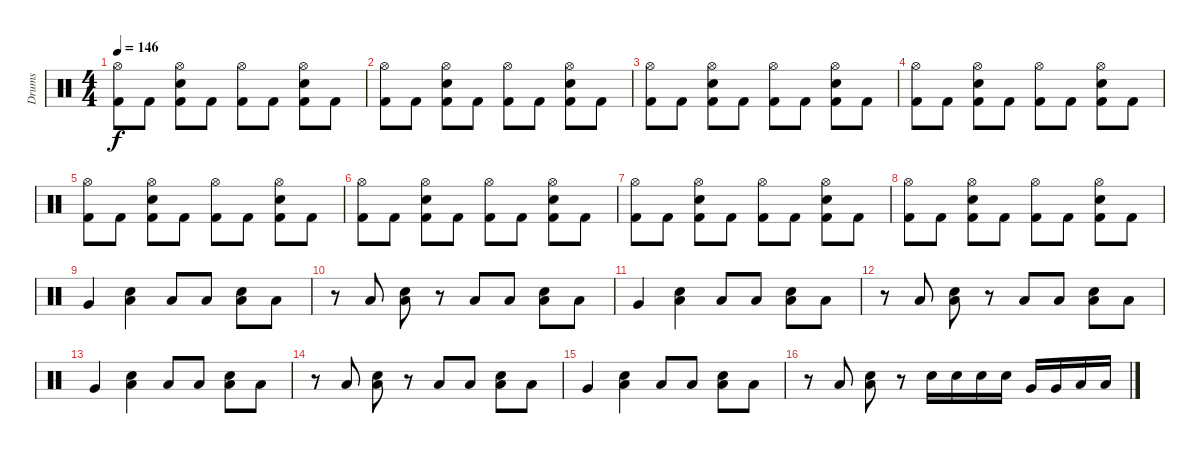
\track ("Drums" "Drums") {instrument percussion}
\staff {score}
\articulation defaults
\ts (4 4)
\tempo 146
\clef neutral
\ks c
("Hi-Hat (open)" "Kick (hit) 2").8{dy f} "Kick (hit) 2".8 ("Hi-Hat (open)" "Snare (hit) 2" "Kick (hit) 2").8 "Kick (hit) 2".8 ("Hi-Hat (open)" "Kick (hit) 2").8 "Kick (hit) 2".8 ("Hi-Hat (open)" "Snare (hit) 2" "Kick (hit) 2").8 "Kick (hit) 2".8 |
("Hi-Hat (open)" "Kick (hit) 2").8 "Kick (hit) 2".8 ("Hi-Hat (open)" "Snare (hit) 2" "Kick (hit) 2").8 "Kick (hit) 2".8 ("Hi-Hat (open)" "Kick (hit) 2").8 "Kick (hit) 2".8 ("Hi-Hat (open)" "Snare (hit) 2" "Kick (hit) 2").8 "Kick (hit) 2".8 |
("Hi-Hat (open)" "Kick (hit) 2").8 "Kick (hit) 2".8 ("Hi-Hat (open)" "Snare (hit) 2" "Kick (hit) 2").8 "Kick (hit) 2".8 ("Hi-Hat (open)" "Kick (hit) 2").8 "Kick (hit) 2".8 ("Hi-Hat (open)" "Snare (hit) 2" "Kick (hit) 2").8 "Kick (hit) 2".8 |
("Hi-Hat (open)" "Kick (hit) 2").8 "Kick (hit) 2".8 ("Hi-Hat (open)" "Snare (hit) 2" "Kick (hit) 2").8 "Kick (hit) 2".8 ("Hi-Hat (open)" "Kick (hit) 2").8 "Kick (hit) 2".8 ("Hi-Hat (open)" "Snare (hit) 2" "Kick (hit) 2").8 "Kick (hit) 2".8 |
("Hi-Hat (open)" "Kick (hit) 2").8 "Kick (hit) 2".8 ("Hi-Hat (open)" "Snare (hit) 2" "Kick (hit) 2").8 "Kick (hit) 2".8 ("Hi-Hat (open)" "Kick (hit) 2").8 "Kick (hit) 2".8 ("Hi-Hat (open)" "Snare (hit) 2" "Kick (hit) 2").8 "Kick (hit) 2".8 |
("Hi-Hat (open)" "Kick (hit) 2").8 "Kick (hit) 2".8 ("Hi-Hat (open)" "Snare (hit) 2" "Kick (hit) 2").8 "Kick (hit) 2".8 ("Hi-Hat (open)" "Kick (hit) 2").8 "Kick (hit) 2".8 ("Hi-Hat (open)" "Snare (hit) 2" "Kick (hit) 2").8 "Kick (hit) 2".8 |
("Hi-Hat (open)" "Kick (hit) 2").8 "Kick (hit) 2".8 ("Hi-Hat (open)" "Snare (hit) 2" "Kick (hit) 2").8 "Kick (hit) 2".8 ("Hi-Hat (open)" "Kick (hit) 2").8 "Kick (hit) 2".8 ("Hi-Hat (open)" "Snare (hit) 2" "Kick (hit) 2").8 "Kick (hit) 2".8 |
("Hi-Hat (open)" "Kick (hit) 2").8 "Kick (hit) 2".8 ("Hi-Hat (open)" "Snare (hit) 2" "Kick (hit) 2").8 "Kick (hit) 2".8 ("Hi-Hat (open)" "Kick (hit) 2").8 "Kick (hit) 2".8 ("Hi-Hat (open)" "Snare (hit) 2" "Kick (hit) 2").8 "Kick (hit) 2".8 |
"Very Low Tom (hit)".4 ("Low Tom (hit)" "Snare (hit) 2").4 "Low Tom (hit)".8 "Low Tom (hit)".8 ("Low Tom (hit)" "Snare (hit) 2").8 "Low Tom (hit)".8 |
r.8 "Low Tom (hit)".8 ("Low Tom (hit)" "Snare (hit) 2").8 r.8 "Low Tom (hit)".8 "Low Tom (hit)".8 ("Low Tom (hit)" "Snare (hit) 2").8 "Low Tom (hit)".8 |
"Very Low Tom (hit)".4 ("Low Tom (hit)" "Snare (hit) 2").4 "Low Tom (hit)".8 "Low Tom (hit)".8 ("Low Tom (hit)" "Snare (hit) 2").8 "Low Tom (hit)".8 |
r.8 "Low Tom (hit)".8 ("Low Tom (hit)" "Snare (hit) 2").8 r.8 "Low Tom (hit)".8 "Low Tom (hit)".8 ("Low Tom (hit)" "Snare (hit) 2").8 "Low Tom (hit)".8 |
"Very Low Tom (hit)".4 ("Low Tom (hit)" "Snare (hit) 2").4 "Low Tom (hit)".8 "Low Tom (hit)".8 ("Low Tom (hit)" "Snare (hit) 2").8 "Low Tom (hit)".8 |
r.8 "Low Tom (hit)".8 ("Low Tom (hit)" "Snare (hit) 2").8 r.8 "Low Tom (hit)".8 "Low Tom (hit)".8 ("Low Tom (hit)" "Snare (hit) 2").8 "Low Tom (hit)".8 |
"Very Low Tom (hit)".4 ("Low Tom (hit)" "Snare (hit) 2").4 "Low Tom (hit)".8 "Low Tom (hit)".8 ("Low Tom (hit)" "Snare (hit) 2").8 "Low Tom (hit)".8 |
r.8 "Low Tom (hit)".8 ("Low Tom (hit)" "Snare (hit) 2").8 r.8 "Snare (hit) 2".16 "Snare (hit) 2".16 "Snare (hit) 2".16 "Snare (hit) 2".16 "Very Low Tom (hit)".16 "Very Low Tom (hit)".16 "Low Tom (hit)".16 "Low Tom (hit)".16
